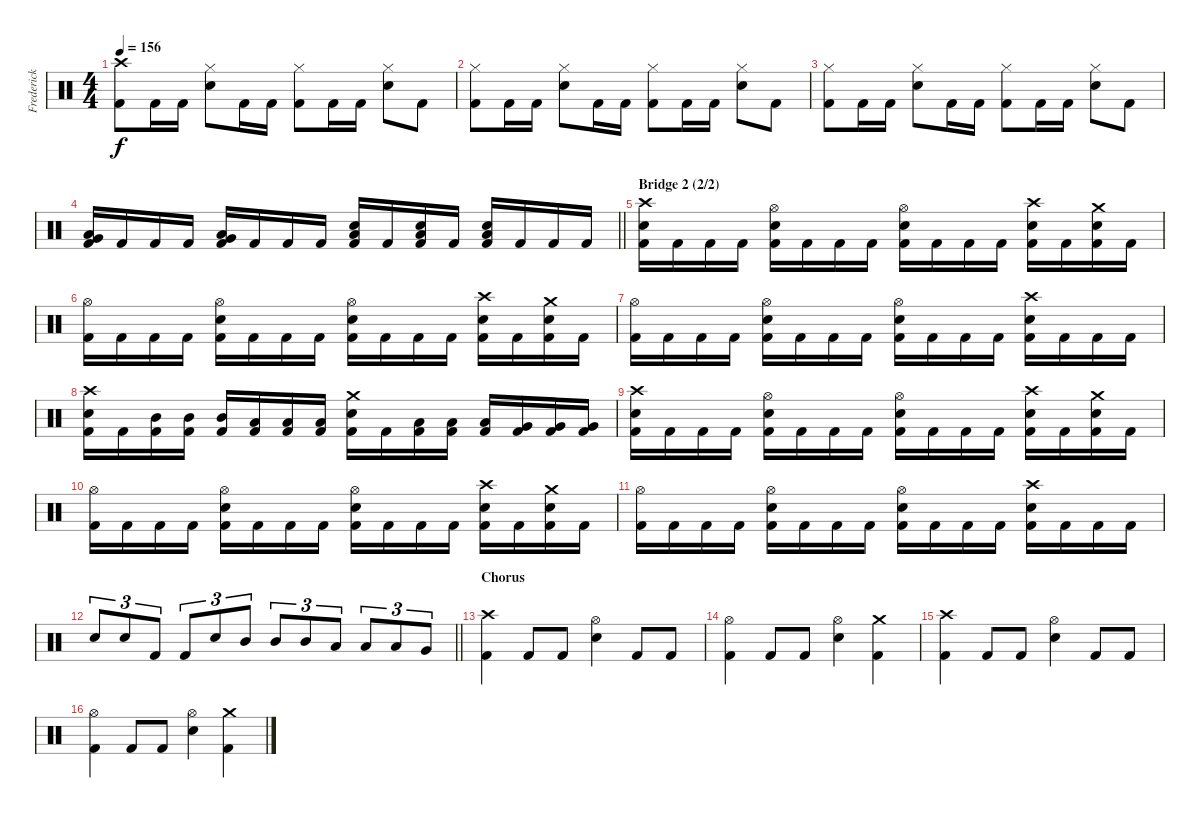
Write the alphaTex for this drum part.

\track ("Frederick Ehmke" "Frederick ") {instrument percussion}
\staff {score}
\articulation defaults
\ts (4 4)
\tempo 156
\clef neutral
\ks c
("Crash high (hit)" "Kick (hit) 2").8{dy f} "Kick (hit) 2".16 "Kick (hit) 2".16 ("Hi-Hat (closed)" "Electric Snare (hit)").8 "Kick (hit) 2".16 "Kick (hit) 2".16 ("Hi-Hat (closed)" "Kick (hit) 2").8 "Kick (hit) 2".16 "Kick (hit) 2".16 ("Hi-Hat (closed)" "Electric Snare (hit)").8 "Kick (hit) 2".8 |
("Hi-Hat (closed)" "Kick (hit) 2").8 "Kick (hit) 2".16 "Kick (hit) 2".16 ("Hi-Hat (closed)" "Electric Snare (hit)").8 "Kick (hit) 2".16 "Kick (hit) 2".16 ("Hi-Hat (closed)" "Kick (hit) 2").8 "Kick (hit) 2".16 "Kick (hit) 2".16 ("Hi-Hat (closed)" "Electric Snare (hit)").8 "Kick (hit) 2".8 |
("Hi-Hat (closed)" "Kick (hit) 2").8 "Kick (hit) 2".16 "Kick (hit) 2".16 ("Hi-Hat (closed)" "Electric Snare (hit)").8 "Kick (hit) 2".16 "Kick (hit) 2".16 ("Hi-Hat (closed)" "Kick (hit) 2").8 "Kick (hit) 2".16 "Kick (hit) 2".16 ("Hi-Hat (closed)" "Electric Snare (hit)").8 "Kick (hit) 2".8 |
\barLineRight lightlight
("Kick (hit) 2" "Very Low Tom (hit)" "Low Tom (hit)").16 "Kick (hit) 2".16 "Kick (hit) 2".16 "Kick (hit) 2".16 ("Kick (hit) 2" "Very Low Tom (hit)" "Low Tom (hit)").16 "Kick (hit) 2".16 "Kick (hit) 2".16 "Kick (hit) 2".16 ("Kick (hit) 2" "Electric Snare (hit)" "Low Floor Tom (hit)").16 "Kick (hit) 2".16 ("Kick (hit) 2" "Electric Snare (hit)" "Low Floor Tom (hit)").16 "Kick (hit) 2".16 ("Kick (hit) 2" "Electric Snare (hit)" "Low Floor Tom (hit)").16 "Kick (hit) 2".16 "Kick (hit) 2".16 "Kick (hit) 2".16 |
\section ("" "Bridge 2 (2/2)")
("Crash high (hit)" "Kick (hit) 2" "Electric Snare (hit)").16 "Kick (hit) 2".16 "Kick (hit) 2".16 "Kick (hit) 2".16 ("Hi-Hat (open)" "Kick (hit) 2" "Electric Snare (hit)").16 "Kick (hit) 2".16 "Kick (hit) 2".16 "Kick (hit) 2".16 ("Hi-Hat (open)" "Kick (hit) 2" "Electric Snare (hit)").16 "Kick (hit) 2".16 "Kick (hit) 2".16 "Kick (hit) 2".16 ("Crash high (hit)" "Kick (hit) 2" "Electric Snare (hit)").16 "Kick (hit) 2".16 ("Crash medium (hit)" "Kick (hit) 2" "Electric Snare (hit)").16 "Kick (hit) 2".16 |
("Hi-Hat (open)" "Kick (hit) 2").16 "Kick (hit) 2".16 "Kick (hit) 2".16 "Kick (hit) 2".16 ("Hi-Hat (open)" "Kick (hit) 2" "Electric Snare (hit)").16 "Kick (hit) 2".16 "Kick (hit) 2".16 "Kick (hit) 2".16 ("Hi-Hat (open)" "Kick (hit) 2" "Electric Snare (hit)").16 "Kick (hit) 2".16 "Kick (hit) 2".16 "Kick (hit) 2".16 ("Crash high (hit)" "Kick (hit) 2" "Electric Snare (hit)").16 "Kick (hit) 2".16 ("Crash medium (hit)" "Kick (hit) 2" "Electric Snare (hit)").16 "Kick (hit) 2".16 |
("Hi-Hat (open)" "Kick (hit) 2").16 "Kick (hit) 2".16 "Kick (hit) 2".16 "Kick (hit) 2".16 ("Hi-Hat (open)" "Kick (hit) 2" "Electric Snare (hit)").16 "Kick (hit) 2".16 "Kick (hit) 2".16 "Kick (hit) 2".16 ("Hi-Hat (open)" "Kick (hit) 2" "Electric Snare (hit)").16 "Kick (hit) 2".16 "Kick (hit) 2".16 "Kick (hit) 2".16 ("Crash high (hit)" "Kick (hit) 2" "Electric Snare (hit)").16 "Kick (hit) 2".16 "Kick (hit) 2".16 "Kick (hit) 2".16 |
("Crash high (hit)" "Kick (hit) 2" "Electric Snare (hit)").16 "Kick (hit) 2".16 ("Kick (hit) 2" "Mid Tom (hit)").16 ("Kick (hit) 2" "Mid Tom (hit)").16 ("Kick (hit) 2" "Mid Tom (hit)").16 ("Kick (hit) 2" "Low Tom (hit)").16 ("Kick (hit) 2" "Low Tom (hit)").16 ("Kick (hit) 2" "Low Tom (hit)").16 ("Crash medium (hit)" "Kick (hit) 2" "Electric Snare (hit)").16 "Kick (hit) 2".16 ("Kick (hit) 2" "Low Tom (hit)").16 ("Kick (hit) 2" "Low Tom (hit)").16 ("Kick (hit) 2" "Low Tom (hit)").16 ("Kick (hit) 2" "Very Low Tom (hit)").16 ("Kick (hit) 2" "Very Low Tom (hit)").16 ("Kick (hit) 2" "Very Low Tom (hit)").16 |
("Crash high (hit)" "Kick (hit) 2" "Electric Snare (hit)").16 "Kick (hit) 2".16 "Kick (hit) 2".16 "Kick (hit) 2".16 ("Hi-Hat (open)" "Kick (hit) 2" "Electric Snare (hit)").16 "Kick (hit) 2".16 "Kick (hit) 2".16 "Kick (hit) 2".16 ("Hi-Hat (open)" "Kick (hit) 2" "Electric Snare (hit)").16 "Kick (hit) 2".16 "Kick (hit) 2".16 "Kick (hit) 2".16 ("Crash high (hit)" "Kick (hit) 2" "Electric Snare (hit)").16 "Kick (hit) 2".16 ("Crash medium (hit)" "Kick (hit) 2" "Electric Snare (hit)").16 "Kick (hit) 2".16 |
("Hi-Hat (open)" "Kick (hit) 2").16 "Kick (hit) 2".16 "Kick (hit) 2".16 "Kick (hit) 2".16 ("Hi-Hat (open)" "Kick (hit) 2" "Electric Snare (hit)").16 "Kick (hit) 2".16 "Kick (hit) 2".16 "Kick (hit) 2".16 ("Hi-Hat (open)" "Kick (hit) 2" "Electric Snare (hit)").16 "Kick (hit) 2".16 "Kick (hit) 2".16 "Kick (hit) 2".16 ("Crash high (hit)" "Kick (hit) 2" "Electric Snare (hit)").16 "Kick (hit) 2".16 ("Crash medium (hit)" "Kick (hit) 2" "Electric Snare (hit)").16 "Kick (hit) 2".16 |
("Hi-Hat (open)" "Kick (hit) 2").16 "Kick (hit) 2".16 "Kick (hit) 2".16 "Kick (hit) 2".16 ("Hi-Hat (open)" "Kick (hit) 2" "Electric Snare (hit)").16 "Kick (hit) 2".16 "Kick (hit) 2".16 "Kick (hit) 2".16 ("Hi-Hat (open)" "Kick (hit) 2" "Electric Snare (hit)").16 "Kick (hit) 2".16 "Kick (hit) 2".16 "Kick (hit) 2".16 ("Crash high (hit)" "Kick (hit) 2" "Electric Snare (hit)").16 "Kick (hit) 2".16 "Kick (hit) 2".16 "Kick (hit) 2".16 |
\barLineRight lightlight "Electric Snare (hit)".8{tu (3 2)} "Electric Snare (hit)".8{tu (3 2)} "Kick (hit) 2".8{tu (3 2)} "Kick (hit) 2".8{tu (3 2)} "Electric Snare (hit)".8{tu (3 2)} "Mid Tom (hit)".8{tu (3 2)} "Mid Tom (hit)".8{tu (3 2)} "Mid Tom (hit)".8{tu (3 2)} "Low Tom (hit)".8{tu (3 2)} "Low Tom (hit)".8{tu (3 2)} "Low Tom (hit)".8{tu (3 2)} "Very Low Tom (hit)".8{tu (3 2)}
|
\section ("" "Chorus")
("Crash high (hit)" "Kick (hit) 2").4 "Kick (hit) 2".8 "Kick (hit) 2".8 ("Hi-Hat (open)" "Electric Snare (hit)").4 "Kick (hit) 2".8 "Kick (hit) 2".8 |
("Hi-Hat (open)" "Kick (hit) 2").4 "Kick (hit) 2".8 "Kick (hit) 2".8 ("Hi-Hat (open)" "Electric Snare (hit)").4 ("Crash medium (hit)" "Kick (hit) 2").4 |
("Crash high (hit)" "Kick (hit) 2").4 "Kick (hit) 2".8 "Kick (hit) 2".8 ("Hi-Hat (open)" "Electric Snare (hit)").4 "Kick (hit) 2".8 "Kick (hit) 2".8 |
("Hi-Hat (open)" "Kick (hit) 2").4 "Kick (hit) 2".8 "Kick (hit) 2".8 ("Hi-Hat (open)" "Electric Snare (hit)").4 ("Crash medium (hit)" "Kick (hit) 2").4
